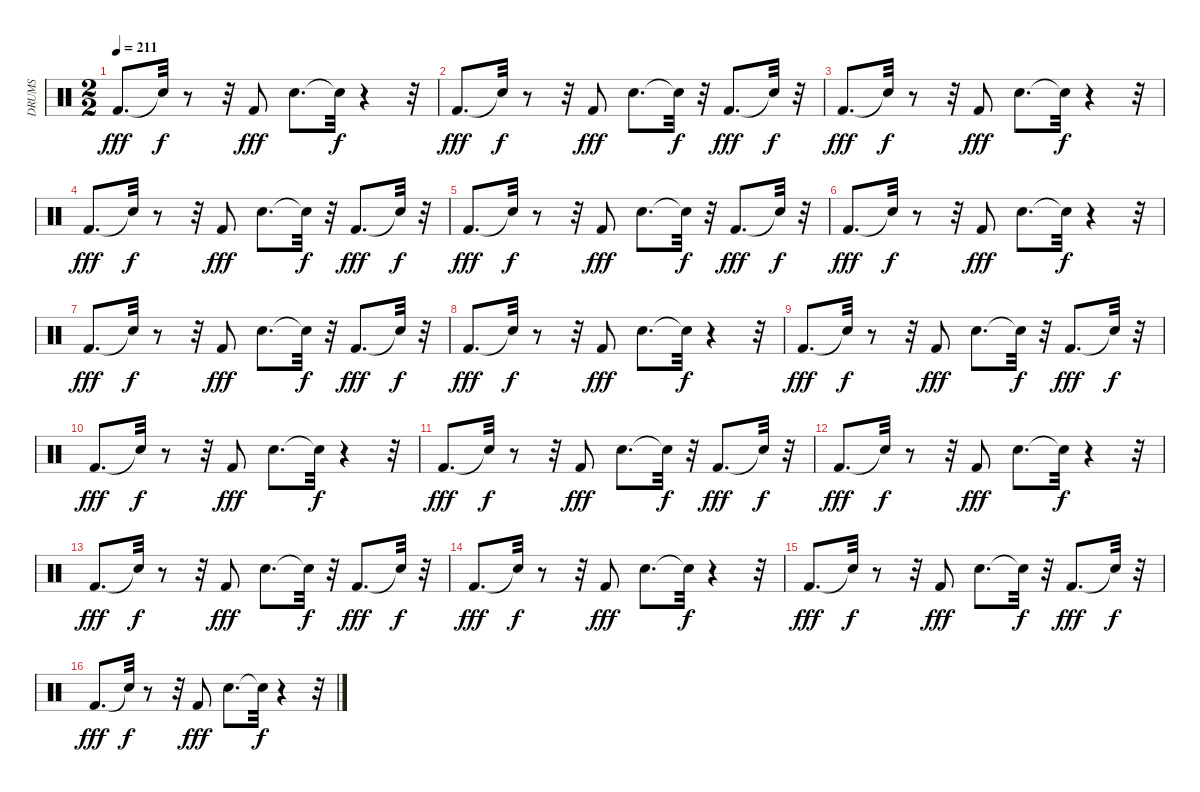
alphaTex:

\track ("DRUMS" "DRUMS") {instrument percussion}
\staff {score}
\articulation defaults
\ts (2 2)
\tempo 211
\clef neutral
\ks c "Kick (hit) 2".8{d dy fff} "Snare (hit)"{t}.32{dy f}
r.8 r.32 "Kick (hit) 2".8{dy fff} "Snare (hit) 2".8{d} "Snare (hit)"{t}.32{dy f} r.4 r.32 |
"Kick (hit) 2".8{d dy fff} "Snare (hit)"{t}.32{dy f} r.8 r.32 "Kick (hit) 2".8{dy fff} "Snare (hit) 2".8{d} "Snare (hit)"{t}.32{dy f} r.32 "Kick (hit) 2".8{d dy fff} "Snare (hit)"{t}.32{dy f} r.32 |
"Kick (hit) 2".8{d dy fff} "Snare (hit)"{t}.32{dy f} r.8 r.32 "Kick (hit) 2".8{dy fff} "Snare (hit) 2".8{d} "Snare (hit)"{t}.32{dy f} r.4 r.32 |
"Kick (hit) 2".8{d dy fff} "Snare (hit)"{t}.32{dy f} r.8 r.32 "Kick (hit) 2".8{dy fff} "Snare (hit) 2".8{d} "Snare (hit)"{t}.32{dy f} r.32 "Kick (hit) 2".8{d dy fff} "Snare (hit)"{t}.32{dy f} r.32 |
"Kick (hit) 2".8{d dy fff} "Snare (hit)"{t}.32{dy f} r.8 r.32 "Kick (hit) 2".8{dy fff} "Snare (hit) 2".8{d} "Snare (hit)"{t}.32{dy f} r.32 "Kick (hit) 2".8{d dy fff} "Snare (hit)"{t}.32{dy f} r.32 |
"Kick (hit) 2".8{d dy fff} "Snare (hit)"{t}.32{dy f} r.8 r.32 "Kick (hit) 2".8{dy fff} "Snare (hit) 2".8{d} "Snare (hit)"{t}.32{dy f} r.4 r.32 |
"Kick (hit) 2".8{d dy fff} "Snare (hit)"{t}.32{dy f} r.8 r.32 "Kick (hit) 2".8{dy fff} "Snare (hit) 2".8{d} "Snare (hit)"{t}.32{dy f} r.32 "Kick (hit) 2".8{d dy fff} "Snare (hit)"{t}.32{dy f} r.32 |
"Kick (hit) 2".8{d dy fff} "Snare (hit)"{t}.32{dy f} r.8 r.32 "Kick (hit) 2".8{dy fff} "Snare (hit) 2".8{d} "Snare (hit)"{t}.32{dy f} r.4 r.32 |
"Kick (hit) 2".8{d dy fff} "Snare (hit)"{t}.32{dy f} r.8 r.32 "Kick (hit) 2".8{dy fff} "Snare (hit) 2".8{d} "Snare (hit)"{t}.32{dy f} r.32 "Kick (hit) 2".8{d dy fff} "Snare (hit)"{t}.32{dy f} r.32 |
"Kick (hit) 2".8{d dy fff} "Snare (hit)"{t}.32{dy f} r.8 r.32 "Kick (hit) 2".8{dy fff} "Snare (hit) 2".8{d} "Snare (hit)"{t}.32{dy f} r.4 r.32 |
"Kick (hit) 2".8{d dy fff} "Snare (hit)"{t}.32{dy f} r.8 r.32 "Kick (hit) 2".8{dy fff} "Snare (hit) 2".8{d} "Snare (hit)"{t}.32{dy f} r.32 "Kick (hit) 2".8{d dy fff} "Snare (hit)"{t}.32{dy f} r.32 |
"Kick (hit) 2".8{d dy fff} "Snare (hit)"{t}.32{dy f} r.8 r.32 "Kick (hit) 2".8{dy fff} "Snare (hit) 2".8{d} "Snare (hit)"{t}.32{dy f} r.4 r.32 |
"Kick (hit) 2".8{d dy fff} "Snare (hit)"{t}.32{dy f} r.8 r.32 "Kick (hit) 2".8{dy fff} "Snare (hit) 2".8{d} "Snare (hit)"{t}.32{dy f} r.32 "Kick (hit) 2".8{d dy fff} "Snare (hit)"{t}.32{dy f} r.32 |
"Kick (hit) 2".8{d dy fff} "Snare (hit)"{t}.32{dy f} r.8 r.32 "Kick (hit) 2".8{dy fff} "Snare (hit) 2".8{d} "Snare (hit)"{t}.32{dy f} r.4 r.32 |
"Kick (hit) 2".8{d dy fff} "Snare (hit)"{t}.32{dy f} r.8 r.32 "Kick (hit) 2".8{dy fff} "Snare (hit) 2".8{d} "Snare (hit)"{t}.32{dy f} r.32 "Kick (hit) 2".8{d dy fff} "Snare (hit)"{t}.32{dy f} r.32 |
"Kick (hit) 2".8{d dy fff} "Snare (hit)"{t}.32{dy f} r.8 r.32 "Kick (hit) 2".8{dy fff} "Snare (hit) 2".8{d} "Snare (hit)"{t}.32{dy f} r.4 r.32
